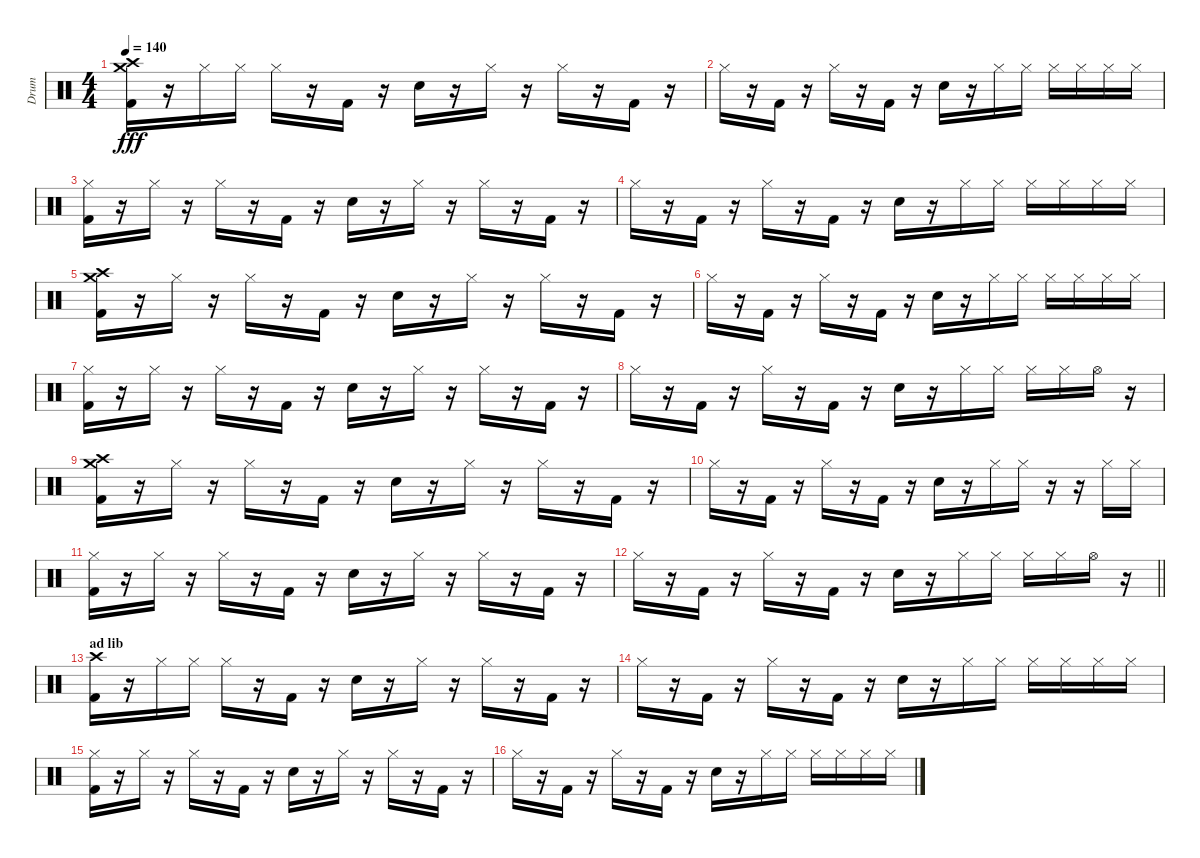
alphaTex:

\track ("Drum" "Drum") {instrument percussion}
\staff {score}
\articulation defaults
\ts (4 4)
\tempo 140
\clef neutral
\ks c
("Crash medium (hit)" "Crash high (hit)" "Kick (hit) 2").16{dy fff} r.16 "Hi-Hat (closed)".16 "Hi-Hat (closed)".16 "Hi-Hat (closed)".16 r.16 "Kick (hit) 2".16 r.16 "Electric Snare (hit)".16 r.16 "Hi-Hat (closed)".16 r.16 "Hi-Hat (closed)".16 r.16 "Kick (hit) 2".16 r.16 |
"Hi-Hat (closed)".16 r.16 "Kick (hit) 2".16 r.16 "Hi-Hat (closed)".16 r.16 "Kick (hit) 2".16 r.16 "Electric Snare (hit)".16 r.16 "Hi-Hat (closed)".16 "Hi-Hat (closed)".16 "Hi-Hat (closed)".16 "Hi-Hat (closed)".16 "Hi-Hat (closed)".16 "Hi-Hat (closed)".16 |
("Hi-Hat (closed)" "Kick (hit) 2").16 r.16 "Hi-Hat (closed)".16 r.16 "Hi-Hat (closed)".16 r.16 "Kick (hit) 2".16 r.16 "Electric Snare (hit)".16 r.16 "Hi-Hat (closed)".16 r.16 "Hi-Hat (closed)".16 r.16 "Kick (hit) 2".16 r.16 |
"Hi-Hat (closed)".16 r.16 "Kick (hit) 2".16 r.16 "Hi-Hat (closed)".16 r.16 "Kick (hit) 2".16 r.16 "Electric Snare (hit)".16 r.16 "Hi-Hat (closed)".16 "Hi-Hat (closed)".16 "Hi-Hat (closed)".16 "Hi-Hat (closed)".16 "Hi-Hat (closed)".16 "Hi-Hat (closed)".16 |
("Crash medium (hit)" "Crash high (hit)" "Kick (hit) 2").16 r.16 "Hi-Hat (closed)".16 r.16 "Hi-Hat (closed)".16 r.16 "Kick (hit) 2".16 r.16 "Electric Snare (hit)".16 r.16 "Hi-Hat (closed)".16 r.16 "Hi-Hat (closed)".16 r.16 "Kick (hit) 2".16 r.16 |
"Hi-Hat (closed)".16 r.16 "Kick (hit) 2".16 r.16 "Hi-Hat (closed)".16 r.16 "Kick (hit) 2".16 r.16 "Electric Snare (hit)".16 r.16 "Hi-Hat (closed)".16 "Hi-Hat (closed)".16 "Hi-Hat (closed)".16 "Hi-Hat (closed)".16 "Hi-Hat (closed)".16 "Hi-Hat (closed)".16 |
("Hi-Hat (closed)" "Kick (hit) 2").16 r.16 "Hi-Hat (closed)".16 r.16 "Hi-Hat (closed)".16 r.16 "Kick (hit) 2".16 r.16 "Electric Snare (hit)".16 r.16 "Hi-Hat (closed)".16 r.16 "Hi-Hat (closed)".16 r.16 "Kick (hit) 2".16 r.16 |
"Hi-Hat (closed)".16 r.16 "Kick (hit) 2".16 r.16 "Hi-Hat (closed)".16 r.16 "Kick (hit) 2".16 r.16 "Electric Snare (hit)".16 r.16 "Hi-Hat (closed)".16 "Hi-Hat (closed)".16 "Hi-Hat (closed)".16 "Hi-Hat (closed)".16 "Hi-Hat (open)".16 r.16 |
("Crash medium (hit)" "Crash high (hit)" "Kick (hit) 2").16 r.16 "Hi-Hat (closed)".16 r.16 "Hi-Hat (closed)".16 r.16 "Kick (hit) 2".16 r.16 "Electric Snare (hit)".16 r.16 "Hi-Hat (closed)".16 r.16 "Hi-Hat (closed)".16 r.16 "Kick (hit) 2".16 r.16 |
"Hi-Hat (closed)".16 r.16 "Kick (hit) 2".16 r.16 "Hi-Hat (closed)".16 r.16 "Kick (hit) 2".16 r.16 "Electric Snare (hit)".16 r.16 "Hi-Hat (closed)".16 "Hi-Hat (closed)".16 r.16 r.16 "Hi-Hat (closed)".16 "Hi-Hat (closed)".16 |
("Hi-Hat (closed)" "Kick (hit) 2").16 r.16 "Hi-Hat (closed)".16 r.16 "Hi-Hat (closed)".16 r.16 "Kick (hit) 2".16 r.16 "Electric Snare (hit)".16 r.16 "Hi-Hat (closed)".16 r.16 "Hi-Hat (closed)".16 r.16 "Kick (hit) 2".16 r.16 |
\barLineRight lightlight "Hi-Hat (closed)".16
r.16 "Kick (hit) 2".16 r.16 "Hi-Hat (closed)".16 r.16 "Kick (hit) 2".16 r.16 "Electric Snare (hit)".16 r.16 "Hi-Hat (closed)".16 "Hi-Hat (closed)".16 "Hi-Hat (closed)".16 "Hi-Hat (closed)".16 "Hi-Hat (open)".16 r.16 |
\section ("" "ad lib")
("Crash high (hit)" "Kick (hit) 2").16 r.16 "Hi-Hat (closed)".16 "Hi-Hat (closed)".16 "Hi-Hat (closed)".16 r.16 "Kick (hit) 2".16 r.16 "Electric Snare (hit)".16 r.16 "Hi-Hat (closed)".16 r.16 "Hi-Hat (closed)".16 r.16 "Kick (hit) 2".16 r.16 |
"Hi-Hat (closed)".16 r.16 "Kick (hit) 2".16 r.16 "Hi-Hat (closed)".16 r.16 "Kick (hit) 2".16 r.16 "Electric Snare (hit)".16 r.16 "Hi-Hat (closed)".16 "Hi-Hat (closed)".16 "Hi-Hat (closed)".16 "Hi-Hat (closed)".16 "Hi-Hat (closed)".16 "Hi-Hat (closed)".16 |
("Hi-Hat (closed)" "Kick (hit) 2").16 r.16 "Hi-Hat (closed)".16 r.16 "Hi-Hat (closed)".16 r.16 "Kick (hit) 2".16 r.16 "Electric Snare (hit)".16 r.16 "Hi-Hat (closed)".16 r.16 "Hi-Hat (closed)".16 r.16 "Kick (hit) 2".16 r.16 |
"Hi-Hat (closed)".16 r.16 "Kick (hit) 2".16 r.16 "Hi-Hat (closed)".16 r.16 "Kick (hit) 2".16 r.16 "Electric Snare (hit)".16 r.16 "Hi-Hat (closed)".16 "Hi-Hat (closed)".16 "Hi-Hat (closed)".16 "Hi-Hat (closed)".16 "Hi-Hat (closed)".16 "Hi-Hat (closed)".16
